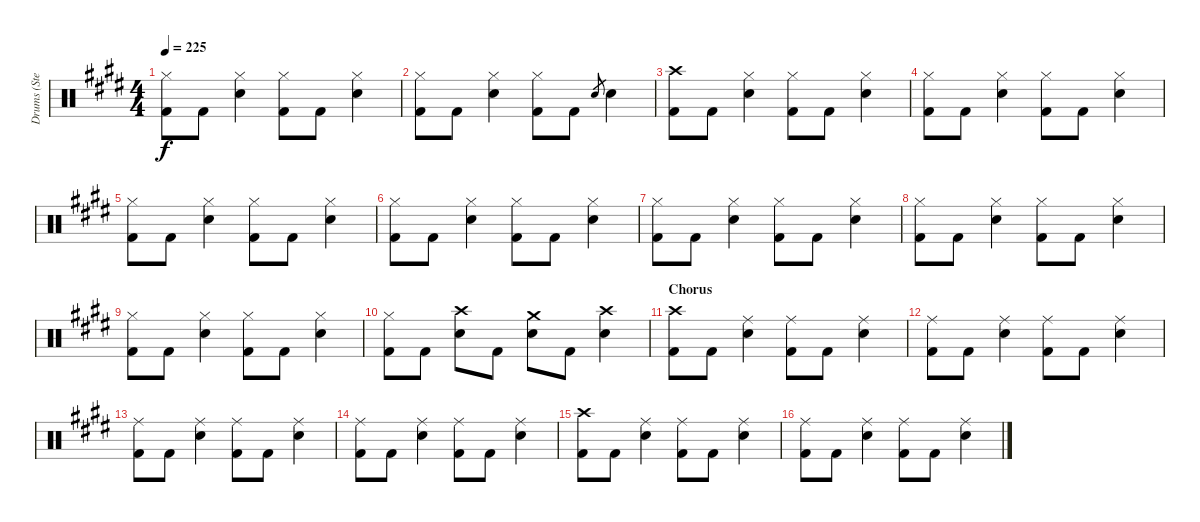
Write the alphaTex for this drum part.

\track ("Drums (Steven)" "Drums (Ste") {instrument percussion}
\staff {score}
\articulation defaults
\ts (4 4)
\tempo 225
\clef neutral
\ks e
("Hi-Hat (closed)" "Kick (hit) 2").8{dy f} "Kick (hit) 2".8 ("Hi-Hat (closed)" "Snare (hit) 2").4 ("Hi-Hat (closed)" "Kick (hit) 2").8 "Kick (hit) 2".8 ("Hi-Hat (closed)" "Snare (hit) 2").4 |
("Hi-Hat (closed)" "Kick (hit) 2").8 "Kick (hit) 2".8 ("Hi-Hat (closed)" "Snare (hit) 2").4 ("Hi-Hat (closed)" "Kick (hit) 2").8 "Kick (hit) 2".8 "Snare (hit) 2".8{gr} "Snare (hit) 2".4 |
("Crash high (hit)" "Kick (hit) 2").8 "Kick (hit) 2".8 ("Hi-Hat (closed)" "Snare (hit) 2").4 ("Hi-Hat (closed)" "Kick (hit) 2").8 "Kick (hit) 2".8 ("Hi-Hat (closed)" "Snare (hit) 2").4 |
("Hi-Hat (closed)" "Kick (hit) 2").8 "Kick (hit) 2".8 ("Hi-Hat (closed)" "Snare (hit) 2").4 ("Hi-Hat (closed)" "Kick (hit) 2").8 "Kick (hit) 2".8 ("Hi-Hat (closed)" "Snare (hit) 2").4 |
("Hi-Hat (closed)" "Kick (hit) 2").8 "Kick (hit) 2".8 ("Hi-Hat (closed)" "Snare (hit) 2").4 ("Hi-Hat (closed)" "Kick (hit) 2").8 "Kick (hit) 2".8 ("Hi-Hat (closed)" "Snare (hit) 2").4 |
("Hi-Hat (closed)" "Kick (hit) 2").8 "Kick (hit) 2".8 ("Hi-Hat (closed)" "Snare (hit) 2").4 ("Hi-Hat (closed)" "Kick (hit) 2").8 "Kick (hit) 2".8 ("Hi-Hat (closed)" "Snare (hit) 2").4 |
("Hi-Hat (closed)" "Kick (hit) 2").8 "Kick (hit) 2".8 ("Hi-Hat (closed)" "Snare (hit) 2").4 ("Hi-Hat (closed)" "Kick (hit) 2").8 "Kick (hit) 2".8 ("Hi-Hat (closed)" "Snare (hit) 2").4 |
("Hi-Hat (closed)" "Kick (hit) 2").8 "Kick (hit) 2".8 ("Hi-Hat (closed)" "Snare (hit) 2").4 ("Hi-Hat (closed)" "Kick (hit) 2").8 "Kick (hit) 2".8 ("Hi-Hat (closed)" "Snare (hit) 2").4 |
("Hi-Hat (closed)" "Kick (hit) 2").8 "Kick (hit) 2".8 ("Hi-Hat (closed)" "Snare (hit) 2").4 ("Hi-Hat (closed)" "Kick (hit) 2").8 "Kick (hit) 2".8 ("Hi-Hat (closed)" "Snare (hit) 2").4 |
("Hi-Hat (closed)" "Kick (hit) 2").8 "Kick (hit) 2".8 ("Crash high (hit)" "Snare (hit) 2").8 "Kick (hit) 2".8 ("Crash medium (hit)" "Snare (hit) 2").8 "Kick (hit) 2".8 ("Crash high (hit)" "Snare (hit) 2").4 |
\section ("" "Chorus")
("Crash high (hit)" "Kick (hit) 2").8 "Kick (hit) 2".8 ("Ride (middle)" "Snare (hit) 2").4 ("Ride (middle)" "Kick (hit) 2").8 "Kick (hit) 2".8 ("Ride (middle)" "Snare (hit) 2").4 |
("Ride (middle)" "Kick (hit) 2").8 "Kick (hit) 2".8 ("Ride (middle)" "Snare (hit) 2").4 ("Ride (middle)" "Kick (hit) 2").8 "Kick (hit) 2".8 ("Ride (middle)" "Snare (hit) 2").4 |
("Ride (middle)" "Kick (hit) 2").8 "Kick (hit) 2".8 ("Ride (middle)" "Snare (hit) 2").4 ("Ride (middle)" "Kick (hit) 2").8 "Kick (hit) 2".8 ("Ride (middle)" "Snare (hit) 2").4 |
("Ride (middle)" "Kick (hit) 2").8 "Kick (hit) 2".8 ("Ride (middle)" "Snare (hit) 2").4 ("Ride (middle)" "Kick (hit) 2").8 "Kick (hit) 2".8 ("Ride (middle)" "Snare (hit) 2").4 |
("Crash high (hit)" "Kick (hit) 2").8 "Kick (hit) 2".8 ("Ride (middle)" "Snare (hit) 2").4 ("Ride (middle)" "Kick (hit) 2").8 "Kick (hit) 2".8 ("Ride (middle)" "Snare (hit) 2").4 |
("Ride (middle)" "Kick (hit) 2").8 "Kick (hit) 2".8 ("Ride (middle)" "Snare (hit) 2").4 ("Ride (middle)" "Kick (hit) 2").8 "Kick (hit) 2".8 ("Ride (middle)" "Snare (hit) 2").4
